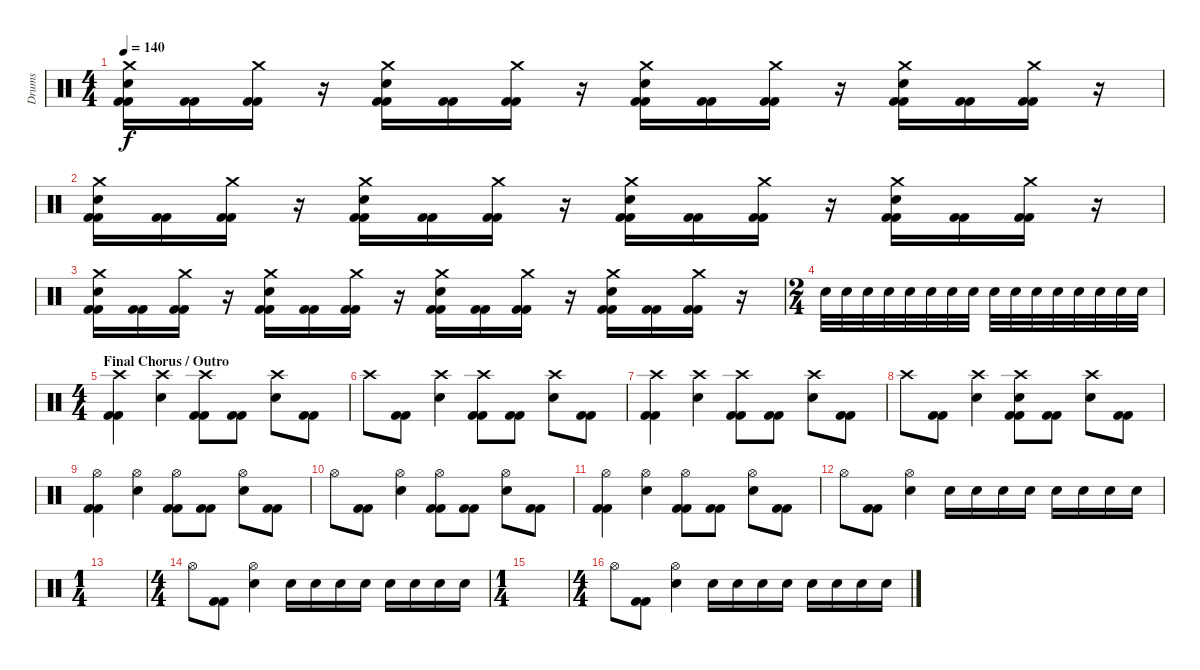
\track ("Drums" "Drums") {instrument percussion}
\staff {score}
\articulation defaults
\ts (4 4)
\tempo 140
\clef neutral
\ks c
("Crash medium (hit)" "Kick (hit) 2" "Electric Snare (hit)" "Kick (hit) 2").16{dy f} ("Kick (hit) 2" "Kick (hit) 2").16 ("Crash medium (hit)" "Kick (hit) 2" "Kick (hit) 2").16 r.16 ("Crash medium (hit)" "Kick (hit) 2" "Electric Snare (hit)" "Kick (hit) 2").16 ("Kick (hit) 2" "Kick (hit) 2").16 ("Crash medium (hit)" "Kick (hit) 2" "Kick (hit) 2").16 r.16 ("Crash medium (hit)" "Kick (hit) 2" "Electric Snare (hit)" "Kick (hit) 2").16 ("Kick (hit) 2" "Kick (hit) 2").16 ("Crash medium (hit)" "Kick (hit) 2" "Kick (hit) 2").16 r.16 ("Crash medium (hit)" "Kick (hit) 2" "Electric Snare (hit)" "Kick (hit) 2").16 ("Kick (hit) 2" "Kick (hit) 2").16 ("Crash medium (hit)" "Kick (hit) 2" "Kick (hit) 2").16 r.16 |
("Crash medium (hit)" "Kick (hit) 2" "Electric Snare (hit)" "Kick (hit) 2").16 ("Kick (hit) 2" "Kick (hit) 2").16 ("Crash medium (hit)" "Kick (hit) 2" "Kick (hit) 2").16 r.16 ("Crash medium (hit)" "Kick (hit) 2" "Electric Snare (hit)" "Kick (hit) 2").16 ("Kick (hit) 2" "Kick (hit) 2").16 ("Crash medium (hit)" "Kick (hit) 2" "Kick (hit) 2").16 r.16 ("Crash medium (hit)" "Kick (hit) 2" "Electric Snare (hit)" "Kick (hit) 2").16 ("Kick (hit) 2" "Kick (hit) 2").16 ("Crash medium (hit)" "Kick (hit) 2" "Kick (hit) 2").16 r.16 ("Crash medium (hit)" "Kick (hit) 2" "Electric Snare (hit)" "Kick (hit) 2").16 ("Kick (hit) 2" "Kick (hit) 2").16 ("Crash medium (hit)" "Kick (hit) 2" "Kick (hit) 2").16 r.16 |
("Crash medium (hit)" "Kick (hit) 2" "Electric Snare (hit)" "Kick (hit) 2").16 ("Kick (hit) 2" "Kick (hit) 2").16 ("Crash medium (hit)" "Kick (hit) 2" "Kick (hit) 2").16 r.16 ("Crash medium (hit)" "Kick (hit) 2" "Electric Snare (hit)" "Kick (hit) 2").16 ("Kick (hit) 2" "Kick (hit) 2").16 ("Crash medium (hit)" "Kick (hit) 2" "Kick (hit) 2").16 r.16 ("Crash medium (hit)" "Kick (hit) 2" "Electric Snare (hit)" "Kick (hit) 2").16 ("Kick (hit) 2" "Kick (hit) 2").16 ("Crash medium (hit)" "Kick (hit) 2" "Kick (hit) 2").16 r.16 ("Crash medium (hit)" "Kick (hit) 2" "Electric Snare (hit)" "Kick (hit) 2").16 ("Kick (hit) 2" "Kick (hit) 2").16 ("Crash medium (hit)" "Kick (hit) 2" "Kick (hit) 2").16 r.16 |
\ts (2 4)
"Electric Snare (hit)".32 "Electric Snare (hit)".32 "Electric Snare (hit)".32 "Electric Snare (hit)".32 "Electric Snare (hit)".32 "Electric Snare (hit)".32 "Electric Snare (hit)".32 "Electric Snare (hit)".32 "Electric Snare (hit)".32 "Electric Snare (hit)".32 "Electric Snare (hit)".32 "Electric Snare (hit)".32 "Electric Snare (hit)".32 "Electric Snare (hit)".32 "Electric Snare (hit)".32 "Electric Snare (hit)".32 |
\ts (4 4)
\section ("" "Final Chorus / Outro")
("Crash high (hit)" "Kick (hit) 2" "Kick (hit) 2").4 ("Crash high (hit)" "Electric Snare (hit)").4 ("Crash high (hit)" "Kick (hit) 2" "Kick (hit) 2").8 ("Kick (hit) 2" "Kick (hit) 2").8 ("Crash high (hit)" "Electric Snare (hit)").8 ("Kick (hit) 2" "Kick (hit) 2").8 |
"Crash high (hit)".8 ("Kick (hit) 2" "Kick (hit) 2").8 ("Crash high (hit)" "Electric Snare (hit)").4 ("Crash high (hit)" "Kick (hit) 2" "Kick (hit) 2").8 ("Kick (hit) 2" "Kick (hit) 2").8 ("Crash high (hit)" "Electric Snare (hit)").8 ("Kick (hit) 2" "Kick (hit) 2").8 |
("Crash high (hit)" "Kick (hit) 2" "Kick (hit) 2").4 ("Crash high (hit)" "Electric Snare (hit)").4 ("Crash high (hit)" "Kick (hit) 2" "Kick (hit) 2").8 ("Kick (hit) 2" "Kick (hit) 2").8 ("Crash high (hit)" "Electric Snare (hit)").8 ("Kick (hit) 2" "Kick (hit) 2").8 |
"Crash high (hit)".8 ("Kick (hit) 2" "Kick (hit) 2").8 ("Crash high (hit)" "Electric Snare (hit)").4 ("Crash high (hit)" "Kick (hit) 2" "Electric Snare (hit)" "Kick (hit) 2").8 ("Kick (hit) 2" "Kick (hit) 2").8 ("Crash high (hit)" "Electric Snare (hit)").8 ("Kick (hit) 2" "Kick (hit) 2").8 |
("Hi-Hat (open)" "Kick (hit) 2" "Kick (hit) 2").4 ("Hi-Hat (open)" "Electric Snare (hit)").4 ("Hi-Hat (open)" "Kick (hit) 2" "Kick (hit) 2").8 ("Kick (hit) 2" "Kick (hit) 2").8 ("Hi-Hat (open)" "Electric Snare (hit)").8 ("Kick (hit) 2" "Kick (hit) 2").8 |
"Hi-Hat (open)".8 ("Kick (hit) 2" "Kick (hit) 2").8 ("Hi-Hat (open)" "Electric Snare (hit)").4 ("Hi-Hat (open)" "Kick (hit) 2" "Kick (hit) 2").8 ("Kick (hit) 2" "Kick (hit) 2").8 ("Hi-Hat (open)" "Electric Snare (hit)").8 ("Kick (hit) 2" "Kick (hit) 2").8 |
("Hi-Hat (open)" "Kick (hit) 2" "Kick (hit) 2").4 ("Hi-Hat (open)" "Electric Snare (hit)").4 ("Hi-Hat (open)" "Kick (hit) 2" "Kick (hit) 2").8 ("Kick (hit) 2" "Kick (hit) 2").8 ("Hi-Hat (open)" "Electric Snare (hit)").8 ("Kick (hit) 2" "Kick (hit) 2").8 |
"Hi-Hat (open)".8 ("Kick (hit) 2" "Kick (hit) 2").8 ("Hi-Hat (open)" "Electric Snare (hit)").4 "Electric Snare (hit)".16 "Electric Snare (hit)".16 "Electric Snare (hit)".16 "Electric Snare (hit)".16 "Electric Snare (hit)".16 "Electric Snare (hit)".16 "Electric Snare (hit)".16 "Electric Snare (hit)".16 |
\ts (1 4)
|
\ts (4 4)
"Hi-Hat (open)".8 ("Kick (hit) 2" "Kick (hit) 2").8 ("Hi-Hat (open)" "Electric Snare (hit)").4 "Electric Snare (hit)".16 "Electric Snare (hit)".16 "Electric Snare (hit)".16 "Electric Snare (hit)".16 "Electric Snare (hit)".16 "Electric Snare (hit)".16 "Electric Snare (hit)".16 "Electric Snare (hit)".16 |
\ts (1 4)
|
\ts (4 4)
"Hi-Hat (open)".8 ("Kick (hit) 2" "Kick (hit) 2").8 ("Hi-Hat (open)" "Electric Snare (hit)").4 "Electric Snare (hit)".16 "Electric Snare (hit)".16 "Electric Snare (hit)".16 "Electric Snare (hit)".16 "Electric Snare (hit)".16 "Electric Snare (hit)".16 "Electric Snare (hit)".16 "Electric Snare (hit)".16
